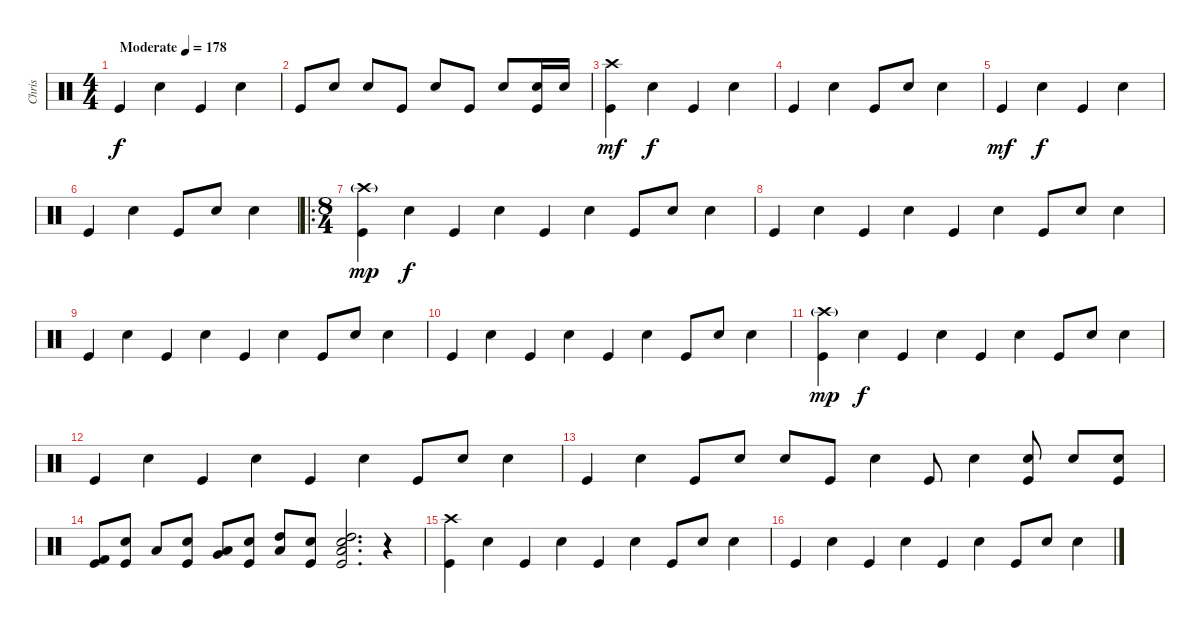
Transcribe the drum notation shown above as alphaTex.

\track ("Chris" "Chris") {instrument percussion}
\staff {score}
\articulation defaults
\ts (4 4)
\tempo (178 "Moderate")
\clef neutral
\ks c "Kick (hit)".4{dy f} "Electric Snare (hit)".4 "Kick (hit)".4 "Electric Snare (hit)".4
|
"Kick (hit)".8 "Electric Snare (hit)".8 "Electric Snare (hit)".8 "Kick (hit)".8 "Electric Snare (hit)".8 "Kick (hit)".8 "Electric Snare (hit)".8 ("Electric Snare (hit)" "Kick (hit)").16 "Electric Snare (hit)".16 |
("Crash high (hit)" "Kick (hit)").4{dy mf} "Electric Snare (hit)".4{dy f} "Kick (hit)".4 "Electric Snare (hit)".4 |
"Kick (hit)".4 "Electric Snare (hit)".4 "Kick (hit)".8 "Electric Snare (hit)".8 "Electric Snare (hit)".4 |
"Kick (hit)".4{dy mf} "Electric Snare (hit)".4{dy f} "Kick (hit)".4 "Electric Snare (hit)".4 |
"Kick (hit)".4 "Electric Snare (hit)".4 "Kick (hit)".8 "Electric Snare (hit)".8 "Electric Snare (hit)".4 |
\ro
\ts (8 4)
("Crash high (hit)"{g} "Kick (hit)").4{dy mp} "Electric Snare (hit)".4{dy f} "Kick (hit)".4 "Electric Snare (hit)".4 "Kick (hit)".4 "Electric Snare (hit)".4 "Kick (hit)".8 "Electric Snare (hit)".8 "Electric Snare (hit)".4 |
"Kick (hit)".4 "Electric Snare (hit)".4 "Kick (hit)".4 "Electric Snare (hit)".4 "Kick (hit)".4 "Electric Snare (hit)".4 "Kick (hit)".8 "Electric Snare (hit)".8 "Electric Snare (hit)".4 |
"Kick (hit)".4 "Electric Snare (hit)".4 "Kick (hit)".4 "Electric Snare (hit)".4 "Kick (hit)".4 "Electric Snare (hit)".4 "Kick (hit)".8 "Electric Snare (hit)".8 "Electric Snare (hit)".4 |
"Kick (hit)".4 "Electric Snare (hit)".4 "Kick (hit)".4 "Electric Snare (hit)".4 "Kick (hit)".4 "Electric Snare (hit)".4 "Kick (hit)".8 "Electric Snare (hit)".8 "Electric Snare (hit)".4 |
("Crash high (hit)"{g} "Kick (hit)").4{dy mp} "Electric Snare (hit)".4{dy f} "Kick (hit)".4 "Electric Snare (hit)".4 "Kick (hit)".4 "Electric Snare (hit)".4 "Kick (hit)".8 "Electric Snare (hit)".8 "Electric Snare (hit)".4 |
"Kick (hit)".4 "Electric Snare (hit)".4 "Kick (hit)".4 "Electric Snare (hit)".4 "Kick (hit)".4 "Electric Snare (hit)".4 "Kick (hit)".8 "Electric Snare (hit)".8 "Electric Snare (hit)".4 |
"Kick (hit)".4 "Electric Snare (hit)".4 "Kick (hit)".8 "Electric Snare (hit)".8 "Electric Snare (hit)".8 "Kick (hit)".8 "Electric Snare (hit)".4 "Kick (hit)".8 "Electric Snare (hit)".4 ("Electric Snare (hit)" "Kick (hit)").8 "Electric Snare (hit)".8 ("Electric Snare (hit)" "Kick (hit)").8 |
("Kick (hit) 2" "Kick (hit)").8 ("Electric Snare (hit)" "Kick (hit)").8 "Low Tom (hit)".8 ("Snare (hit) 2" "Kick (hit)").8 ("Low Floor Tom (hit)" "Very Low Tom (hit)").8 ("Snare (hit) 2" "Kick (hit)").8 ("High Tom (hit)" "Low Tom (hit)").8 ("Snare (hit) 2" "Kick (hit)").8 ("Low Floor Tom (hit)" "High Tom (hit)" "Electric Snare (hit)" "Kick (hit)").2{d} r.4 |
("Crash high (hit)" "Kick (hit)").4 "Electric Snare (hit)".4 "Kick (hit)".4 "Electric Snare (hit)".4 "Kick (hit)".4 "Electric Snare (hit)".4 "Kick (hit)".8 "Electric Snare (hit)".8 "Electric Snare (hit)".4 |
"Kick (hit)".4 "Electric Snare (hit)".4 "Kick (hit)".4 "Electric Snare (hit)".4 "Kick (hit)".4 "Electric Snare (hit)".4 "Kick (hit)".8 "Electric Snare (hit)".8 "Electric Snare (hit)".4
